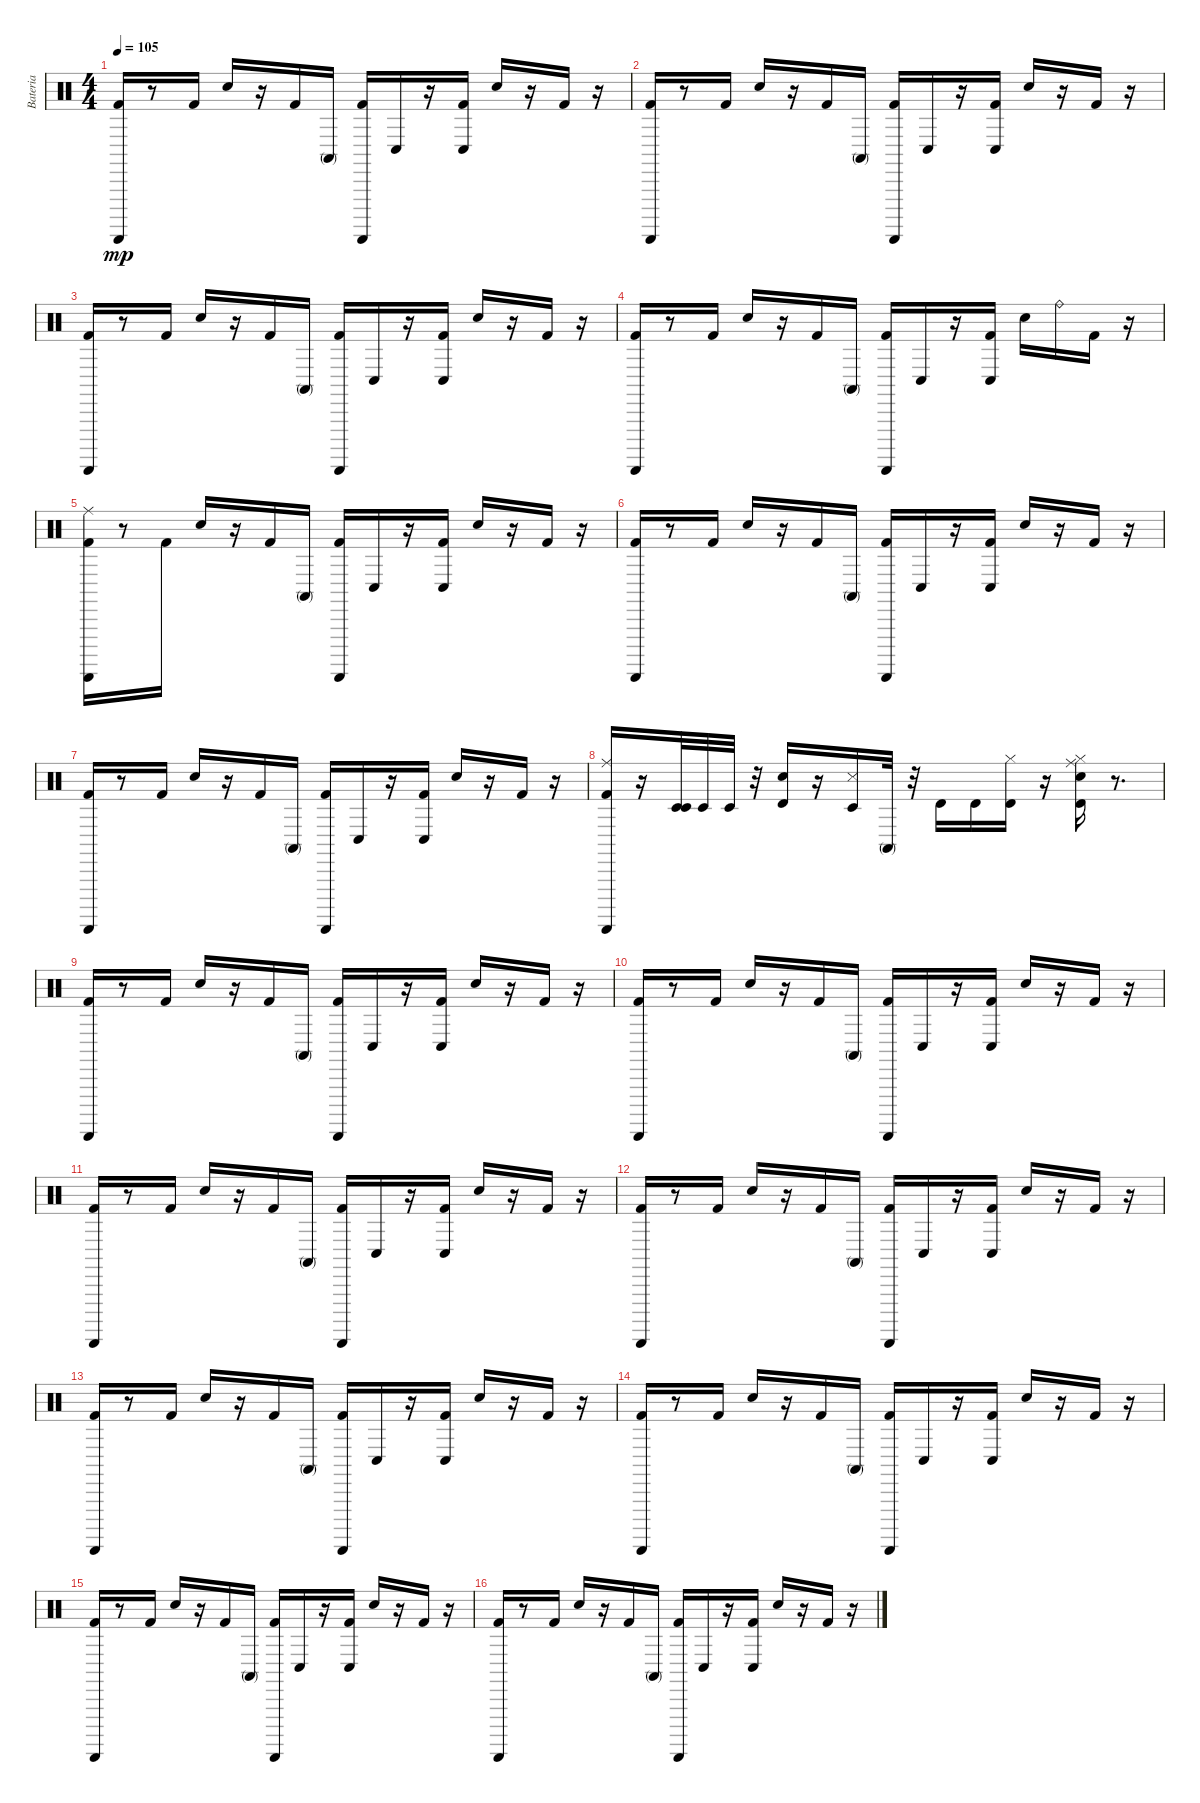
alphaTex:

\track ("Bateria" "Bateria") {instrument percussion}
\staff {score}
\articulation defaults
\ts (4 4)
\tempo 105
\clef neutral
\ks c
("Kick (hit) 2" "Guiro (scrap-return)").16{dy mp} r.8 "Kick (hit) 2".16 "Electric Snare (hit)".16 r.16 "Kick (hit) 2".16 "Conga high (mute)".16 ("Kick (hit) 2" "Guiro (scrap-return)").16 "Conga low (hit)".16 r.16 ("Conga low (hit)" "Kick (hit) 2").16 "Electric Snare (hit)".16 r.16 "Kick (hit) 2".16 r.16 |
("Kick (hit) 2" "Guiro (scrap-return)").16 r.8 "Kick (hit) 2".16 "Electric Snare (hit)".16 r.16 "Kick (hit) 2".16 "Conga high (mute)".16 ("Kick (hit) 2" "Guiro (scrap-return)").16 "Conga low (hit)".16 r.16 ("Conga low (hit)" "Kick (hit) 2").16 "Electric Snare (hit)".16 r.16 "Kick (hit) 2".16 r.16 |
("Kick (hit) 2" "Guiro (scrap-return)").16 r.8 "Kick (hit) 2".16 "Electric Snare (hit)".16 r.16 "Kick (hit) 2".16 "Conga high (mute)".16 ("Kick (hit) 2" "Guiro (scrap-return)").16 "Conga low (hit)".16 r.16 ("Conga low (hit)" "Kick (hit) 2").16 "Electric Snare (hit)".16 r.16 "Kick (hit) 2".16 r.16 |
("Kick (hit) 2" "Guiro (scrap-return)").16 r.8 "Kick (hit) 2".16 "Electric Snare (hit)".16 r.16 "Kick (hit) 2".16 "Conga high (mute)".16 ("Kick (hit) 2" "Guiro (scrap-return)").16 "Conga low (hit)".16 r.16 ("Conga low (hit)" "Kick (hit) 2").16 "Electric Snare (hit)".16 "Ride (bell)".16 "Kick (hit) 2".16 r.16 |
("Kick (hit) 2" "Guiro (scrap-return)" "Ride (middle)").16 r.8 "Kick (hit) 2".16 "Electric Snare (hit)".16 r.16 "Kick (hit) 2".16 "Conga high (mute)".16 ("Kick (hit) 2" "Guiro (scrap-return)").16 "Conga low (hit)".16 r.16 ("Conga low (hit)" "Kick (hit) 2").16 "Electric Snare (hit)".16 r.16 "Kick (hit) 2".16 r.16 |
("Kick (hit) 2" "Guiro (scrap-return)").16 r.8 "Kick (hit) 2".16 "Electric Snare (hit)".16 r.16 "Kick (hit) 2".16 "Conga high (mute)".16 ("Kick (hit) 2" "Guiro (scrap-return)").16 "Conga low (hit)".16 r.16 ("Conga low (hit)" "Kick (hit) 2").16 "Electric Snare (hit)".16 r.16 "Kick (hit) 2".16 r.16 |
("Kick (hit) 2" "Guiro (scrap-return)").16 r.8 "Kick (hit) 2".16 "Electric Snare (hit)".16 r.16 "Kick (hit) 2".16 "Conga high (mute)".16 ("Kick (hit) 2" "Guiro (scrap-return)").16 "Conga low (hit)".16 r.16 ("Conga low (hit)" "Kick (hit) 2").16 "Electric Snare (hit)".16 r.16 "Kick (hit) 2".16 r.16 |
("Kick (hit) 2" "Guiro (scrap-return)" "Ride (middle)").16 r.16 ("Timbale low (hit)" "Timbale low (hit)").32 "Timbale low (hit)".32 "Timbale low (hit)".32 r.32 ("Timbale high (hit)" "Electric Snare (hit)").16 r.16 ("Timbale low (hit)" "Snare (side stick) 3").16 "Conga high (mute)".32 r.32 "Timbale high (hit)".16 "Timbale high (hit)".16 ("Timbale high (hit)" "Hi-Hat (closed)").16 r.16 ("Timbale high (hit)" "Ride (middle)" "Electric Snare (hit)" "Hi-Hat (closed)").16 r.8{d} |
("Kick (hit) 2" "Guiro (scrap-return)").16 r.8 "Kick (hit) 2".16 "Electric Snare (hit)".16 r.16 "Kick (hit) 2".16 "Conga high (mute)".16 ("Kick (hit) 2" "Guiro (scrap-return)").16 "Conga low (hit)".16 r.16 ("Conga low (hit)" "Kick (hit) 2").16 "Electric Snare (hit)".16 r.16 "Kick (hit) 2".16 r.16 |
("Kick (hit) 2" "Guiro (scrap-return)").16 r.8 "Kick (hit) 2".16 "Electric Snare (hit)".16 r.16 "Kick (hit) 2".16 "Conga high (mute)".16 ("Kick (hit) 2" "Guiro (scrap-return)").16 "Conga low (hit)".16 r.16 ("Conga low (hit)" "Kick (hit) 2").16 "Electric Snare (hit)".16 r.16 "Kick (hit) 2".16 r.16 |
("Kick (hit) 2" "Guiro (scrap-return)").16 r.8 "Kick (hit) 2".16 "Electric Snare (hit)".16 r.16 "Kick (hit) 2".16 "Conga high (mute)".16 ("Kick (hit) 2" "Guiro (scrap-return)").16 "Conga low (hit)".16 r.16 ("Conga low (hit)" "Kick (hit) 2").16 "Electric Snare (hit)".16 r.16 "Kick (hit) 2".16 r.16 |
("Kick (hit) 2" "Guiro (scrap-return)").16 r.8 "Kick (hit) 2".16 "Electric Snare (hit)".16 r.16 "Kick (hit) 2".16 "Conga high (mute)".16 ("Kick (hit) 2" "Guiro (scrap-return)").16 "Conga low (hit)".16 r.16 ("Conga low (hit)" "Kick (hit) 2").16 "Electric Snare (hit)".16 r.16 "Kick (hit) 2".16 r.16 |
("Kick (hit) 2" "Guiro (scrap-return)").16 r.8 "Kick (hit) 2".16 "Electric Snare (hit)".16 r.16 "Kick (hit) 2".16 "Conga high (mute)".16 ("Kick (hit) 2" "Guiro (scrap-return)").16 "Conga low (hit)".16 r.16 ("Conga low (hit)" "Kick (hit) 2").16 "Electric Snare (hit)".16 r.16 "Kick (hit) 2".16 r.16 |
("Kick (hit) 2" "Guiro (scrap-return)").16 r.8 "Kick (hit) 2".16 "Electric Snare (hit)".16 r.16 "Kick (hit) 2".16 "Conga high (mute)".16 ("Kick (hit) 2" "Guiro (scrap-return)").16 "Conga low (hit)".16 r.16 ("Conga low (hit)" "Kick (hit) 2").16 "Electric Snare (hit)".16 r.16 "Kick (hit) 2".16 r.16 |
("Kick (hit) 2" "Guiro (scrap-return)").16 r.8 "Kick (hit) 2".16 "Electric Snare (hit)".16 r.16 "Kick (hit) 2".16 "Conga high (mute)".16 ("Kick (hit) 2" "Guiro (scrap-return)").16 "Conga low (hit)".16 r.16 ("Conga low (hit)" "Kick (hit) 2").16 "Electric Snare (hit)".16 r.16 "Kick (hit) 2".16 r.16 |
("Kick (hit) 2" "Guiro (scrap-return)").16 r.8 "Kick (hit) 2".16 "Electric Snare (hit)".16 r.16 "Kick (hit) 2".16 "Conga high (mute)".16 ("Kick (hit) 2" "Guiro (scrap-return)").16 "Conga low (hit)".16 r.16 ("Conga low (hit)" "Kick (hit) 2").16 "Electric Snare (hit)".16 r.16 "Kick (hit) 2".16 r.16
